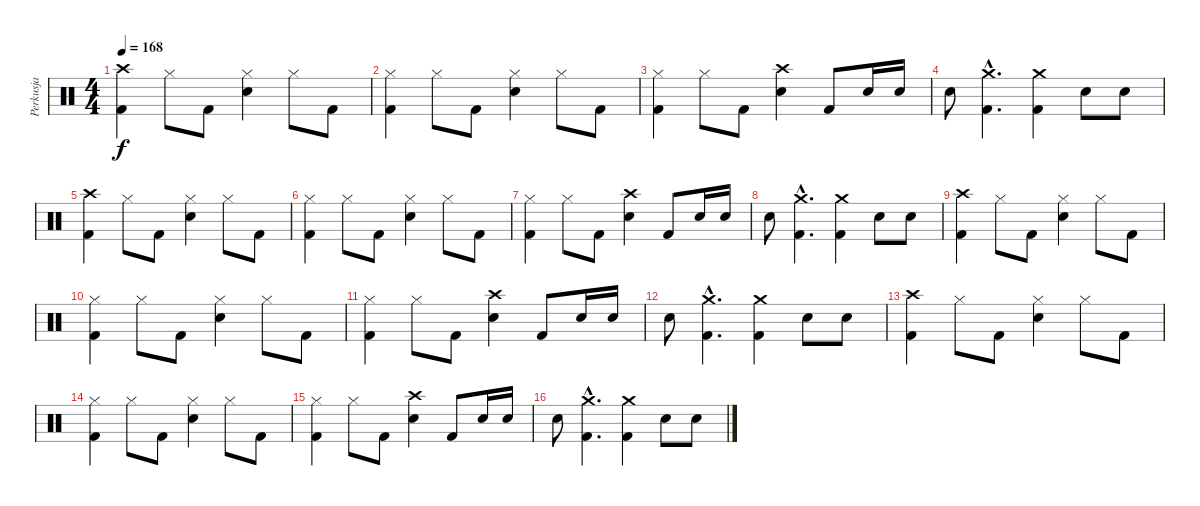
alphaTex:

\track ("Perkusja" "Perkusja") {instrument percussion}
\staff {score}
\articulation defaults
\ts (4 4)
\tempo 168
\clef neutral
\ks c
("Crash high (hit)" "Kick (hit) 2").4{dy f} "Hi-Hat (closed)".8 "Kick (hit) 2".8 ("Hi-Hat (closed)" "Snare (hit) 2").4 "Hi-Hat (closed)".8 "Kick (hit) 2".8 |
("Hi-Hat (closed)" "Kick (hit) 2").4 "Hi-Hat (closed)".8 "Kick (hit) 2".8 ("Hi-Hat (closed)" "Snare (hit) 2").4 "Hi-Hat (closed)".8 "Kick (hit) 2".8 |
("Hi-Hat (closed)" "Kick (hit) 2").4 "Hi-Hat (closed)".8 "Kick (hit) 2".8 ("Crash high (hit)" "Snare (hit) 2").4 "Kick (hit) 2".8 "Snare (hit) 2".16 "Snare (hit) 2".16 |
"Snare (hit) 2".8 ("Crash medium (hit)"{hac} "Kick (hit) 2"{hac}).4{d} ("Crash medium (hit)" "Kick (hit) 2").4 "Snare (hit) 2".8 "Snare (hit) 2".8 |
("Crash high (hit)" "Kick (hit) 2").4 "Hi-Hat (closed)".8 "Kick (hit) 2".8 ("Hi-Hat (closed)" "Snare (hit) 2").4 "Hi-Hat (closed)".8 "Kick (hit) 2".8 |
("Hi-Hat (closed)" "Kick (hit) 2").4 "Hi-Hat (closed)".8 "Kick (hit) 2".8 ("Hi-Hat (closed)" "Snare (hit) 2").4 "Hi-Hat (closed)".8 "Kick (hit) 2".8 |
("Hi-Hat (closed)" "Kick (hit) 2").4 "Hi-Hat (closed)".8 "Kick (hit) 2".8 ("Crash high (hit)" "Snare (hit) 2").4 "Kick (hit) 2".8 "Snare (hit) 2".16 "Snare (hit) 2".16 |
"Snare (hit) 2".8 ("Crash medium (hit)"{hac} "Kick (hit) 2"{hac}).4{d} ("Crash medium (hit)" "Kick (hit) 2").4 "Snare (hit) 2".8 "Snare (hit) 2".8 |
("Crash high (hit)" "Kick (hit) 2").4 "Hi-Hat (closed)".8 "Kick (hit) 2".8 ("Hi-Hat (closed)" "Snare (hit) 2").4 "Hi-Hat (closed)".8 "Kick (hit) 2".8 |
("Hi-Hat (closed)" "Kick (hit) 2").4 "Hi-Hat (closed)".8 "Kick (hit) 2".8 ("Hi-Hat (closed)" "Snare (hit) 2").4 "Hi-Hat (closed)".8 "Kick (hit) 2".8 |
("Hi-Hat (closed)" "Kick (hit) 2").4 "Hi-Hat (closed)".8 "Kick (hit) 2".8 ("Crash high (hit)" "Snare (hit) 2").4 "Kick (hit) 2".8 "Snare (hit) 2".16 "Snare (hit) 2".16 |
"Snare (hit) 2".8 ("Crash medium (hit)"{hac} "Kick (hit) 2"{hac}).4{d} ("Crash medium (hit)" "Kick (hit) 2").4 "Snare (hit) 2".8 "Snare (hit) 2".8 |
("Crash high (hit)" "Kick (hit) 2").4 "Hi-Hat (closed)".8 "Kick (hit) 2".8 ("Hi-Hat (closed)" "Snare (hit) 2").4 "Hi-Hat (closed)".8 "Kick (hit) 2".8 |
("Hi-Hat (closed)" "Kick (hit) 2").4 "Hi-Hat (closed)".8 "Kick (hit) 2".8 ("Hi-Hat (closed)" "Snare (hit) 2").4 "Hi-Hat (closed)".8 "Kick (hit) 2".8 |
("Hi-Hat (closed)" "Kick (hit) 2").4 "Hi-Hat (closed)".8 "Kick (hit) 2".8 ("Crash high (hit)" "Snare (hit) 2").4 "Kick (hit) 2".8 "Snare (hit) 2".16 "Snare (hit) 2".16 |
"Snare (hit) 2".8 ("Crash medium (hit)"{hac} "Kick (hit) 2"{hac}).4{d} ("Crash medium (hit)" "Kick (hit) 2").4 "Snare (hit) 2".8 "Snare (hit) 2".8
